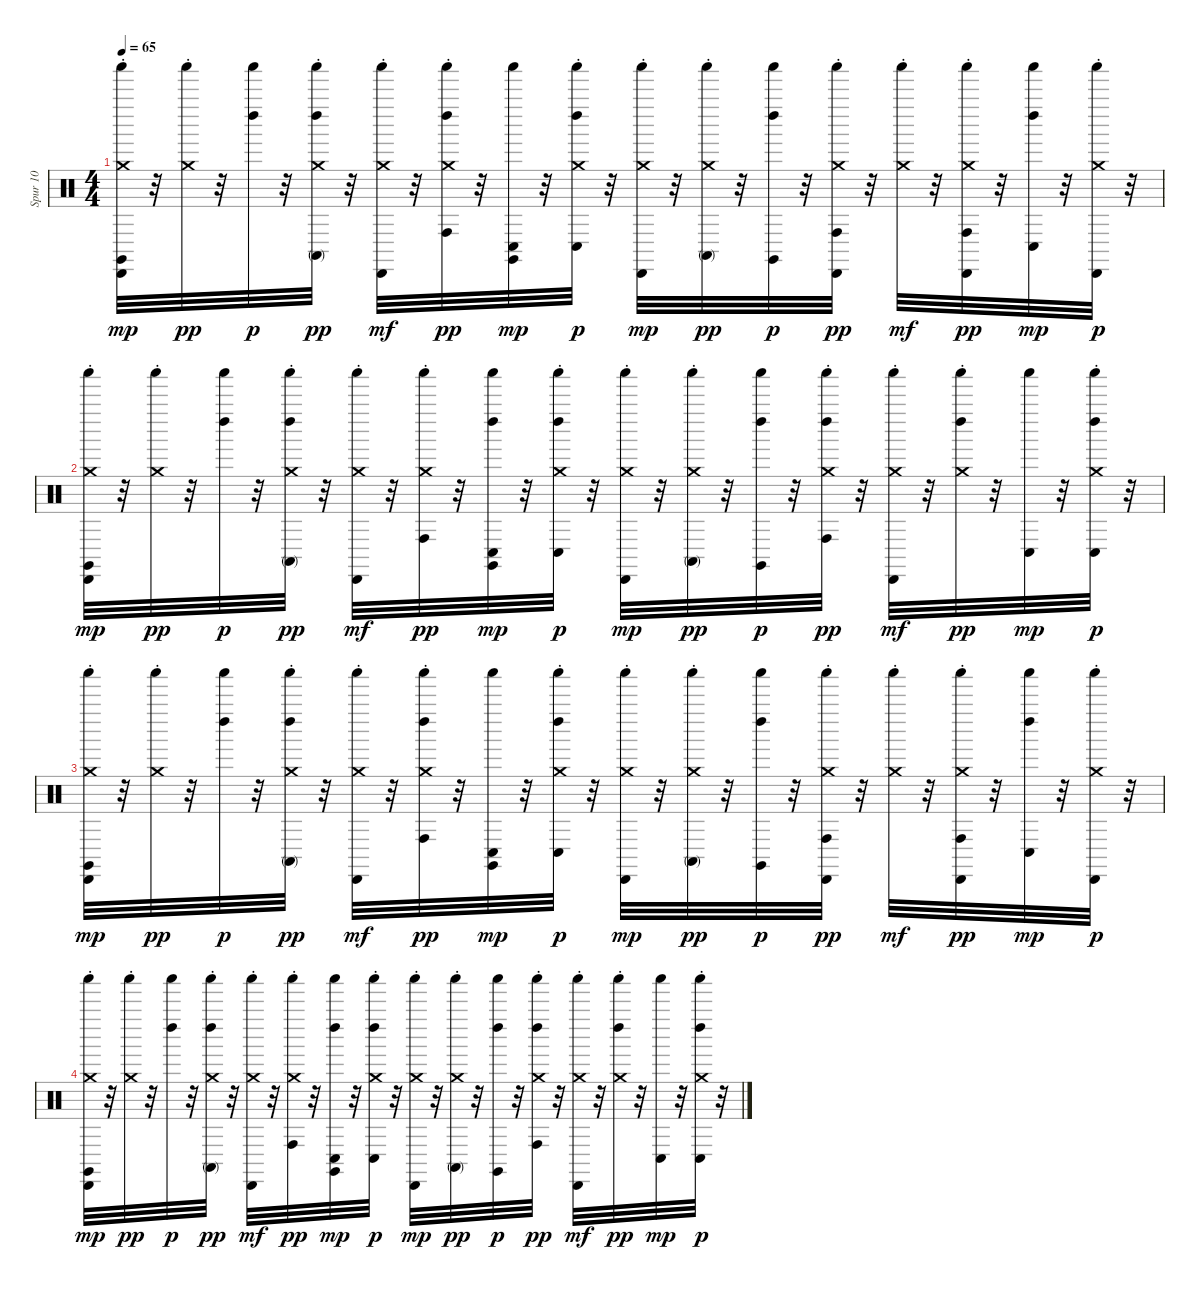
\track ("Spur 10" "Spur 10") {instrument percussion}
\staff {score}
\articulation defaults
\ts (4 4)
\tempo 65
\clef neutral
\ks c
("Claves (hit)" "Cabasa (hit)" "Shaker (hit)" "Crash medium (choke)").32{dy mp} r.32 ("Shaker (hit)" "Crash medium (choke)").32{dy pp} r.32 ("Left Maraca (hit)" "Shaker (hit)").32{dy p} r.32 ("Conga high (mute)" "Left Maraca (hit)" "Shaker (hit)" "Crash medium (choke)").32{dy pp} r.32 ("Cabasa (hit)" "Shaker (hit)" "Crash medium (choke)").32{dy mf} r.32 ("Conga high (hit)" "Left Maraca (hit)" "Shaker (hit)" "Crash medium (choke)").32{dy pp} r.32 ("Claves (hit)" "Conga low (hit)" "Shaker (hit)").32{dy mp} r.32 ("Conga low (hit)" "Left Maraca (hit)" "Shaker (hit)" "Crash medium (choke)").32{dy p} r.32 ("Cabasa (hit)" "Shaker (hit)" "Crash medium (choke)").32{dy mp} r.32 ("Conga high (mute)" "Shaker (hit)" "Crash medium (choke)").32{dy pp} r.32 ("Claves (hit)" "Left Maraca (hit)" "Shaker (hit)").32{dy p} r.32 ("Conga high (hit)" "Cabasa (hit)" "Shaker (hit)" "Crash medium (choke)").32{dy pp} r.32 ("Shaker (hit)" "Crash medium (choke)").32{dy mf} r.32 ("Conga high (hit)" "Cabasa (hit)" "Shaker (hit)" "Crash medium (choke)").32{dy pp} r.32 ("Conga low (hit)" "Left Maraca (hit)" "Shaker (hit)").32{dy mp} r.32 ("Cabasa (hit)" "Shaker (hit)" "Crash medium (choke)").32{dy p} r.32 |
("Claves (hit)" "Cabasa (hit)" "Shaker (hit)" "Crash medium (choke)").32{dy mp} r.32 ("Shaker (hit)" "Crash medium (choke)").32{dy pp} r.32 ("Left Maraca (hit)" "Shaker (hit)").32{dy p} r.32 ("Conga high (mute)" "Left Maraca (hit)" "Shaker (hit)" "Crash medium (choke)").32{dy pp} r.32 ("Cabasa (hit)" "Shaker (hit)" "Crash medium (choke)").32{dy mf} r.32 ("Conga high (hit)" "Shaker (hit)" "Crash medium (choke)").32{dy pp} r.32 ("Claves (hit)" "Conga low (hit)" "Left Maraca (hit)" "Shaker (hit)").32{dy mp} r.32 ("Conga low (hit)" "Left Maraca (hit)" "Shaker (hit)" "Crash medium (choke)").32{dy p} r.32 ("Cabasa (hit)" "Shaker (hit)" "Crash medium (choke)").32{dy mp} r.32 ("Conga high (mute)" "Shaker (hit)" "Crash medium (choke)").32{dy pp} r.32 ("Claves (hit)" "Left Maraca (hit)" "Shaker (hit)").32{dy p} r.32 ("Conga high (hit)" "Left Maraca (hit)" "Shaker (hit)" "Crash medium (choke)").32{dy pp} r.32 ("Cabasa (hit)" "Shaker (hit)" "Crash medium (choke)").32{dy mf} r.32 ("Left Maraca (hit)" "Shaker (hit)" "Crash medium (choke)").32{dy pp} r.32 ("Conga low (hit)" "Shaker (hit)").32{dy mp} r.32 ("Conga low (hit)" "Left Maraca (hit)" "Shaker (hit)" "Crash medium (choke)").32{dy p} r.32 |
("Claves (hit)" "Cabasa (hit)" "Shaker (hit)" "Crash medium (choke)").32{dy mp} r.32 ("Shaker (hit)" "Crash medium (choke)").32{dy pp} r.32 ("Left Maraca (hit)" "Shaker (hit)").32{dy p} r.32 ("Conga high (mute)" "Left Maraca (hit)" "Shaker (hit)" "Crash medium (choke)").32{dy pp} r.32 ("Cabasa (hit)" "Shaker (hit)" "Crash medium (choke)").32{dy mf} r.32 ("Conga high (hit)" "Left Maraca (hit)" "Shaker (hit)" "Crash medium (choke)").32{dy pp} r.32 ("Claves (hit)" "Conga low (hit)" "Shaker (hit)").32{dy mp} r.32 ("Conga low (hit)" "Left Maraca (hit)" "Shaker (hit)" "Crash medium (choke)").32{dy p} r.32 ("Cabasa (hit)" "Shaker (hit)" "Crash medium (choke)").32{dy mp} r.32 ("Conga high (mute)" "Shaker (hit)" "Crash medium (choke)").32{dy pp} r.32 ("Claves (hit)" "Left Maraca (hit)" "Shaker (hit)").32{dy p} r.32 ("Conga high (hit)" "Cabasa (hit)" "Shaker (hit)" "Crash medium (choke)").32{dy pp} r.32 ("Shaker (hit)" "Crash medium (choke)").32{dy mf} r.32 ("Conga high (hit)" "Cabasa (hit)" "Shaker (hit)" "Crash medium (choke)").32{dy pp} r.32 ("Conga low (hit)" "Left Maraca (hit)" "Shaker (hit)").32{dy mp} r.32 ("Cabasa (hit)" "Shaker (hit)" "Crash medium (choke)").32{dy p} r.32 |
("Claves (hit)" "Cabasa (hit)" "Shaker (hit)" "Crash medium (choke)").32{dy mp} r.32 ("Shaker (hit)" "Crash medium (choke)").32{dy pp} r.32 ("Left Maraca (hit)" "Shaker (hit)").32{dy p} r.32 ("Conga high (mute)" "Left Maraca (hit)" "Shaker (hit)" "Crash medium (choke)").32{dy pp} r.32 ("Cabasa (hit)" "Shaker (hit)" "Crash medium (choke)").32{dy mf} r.32 ("Conga high (hit)" "Shaker (hit)" "Crash medium (choke)").32{dy pp} r.32 ("Claves (hit)" "Conga low (hit)" "Left Maraca (hit)" "Shaker (hit)").32{dy mp} r.32 ("Conga low (hit)" "Left Maraca (hit)" "Shaker (hit)" "Crash medium (choke)").32{dy p} r.32 ("Cabasa (hit)" "Shaker (hit)" "Crash medium (choke)").32{dy mp} r.32 ("Conga high (mute)" "Shaker (hit)" "Crash medium (choke)").32{dy pp} r.32 ("Claves (hit)" "Left Maraca (hit)" "Shaker (hit)").32{dy p} r.32 ("Conga high (hit)" "Left Maraca (hit)" "Shaker (hit)" "Crash medium (choke)").32{dy pp} r.32 ("Cabasa (hit)" "Shaker (hit)" "Crash medium (choke)").32{dy mf} r.32 ("Left Maraca (hit)" "Shaker (hit)" "Crash medium (choke)").32{dy pp} r.32 ("Conga low (hit)" "Shaker (hit)").32{dy mp} r.32 ("Conga low (hit)" "Left Maraca (hit)" "Shaker (hit)" "Crash medium (choke)").32{dy p} r.32
